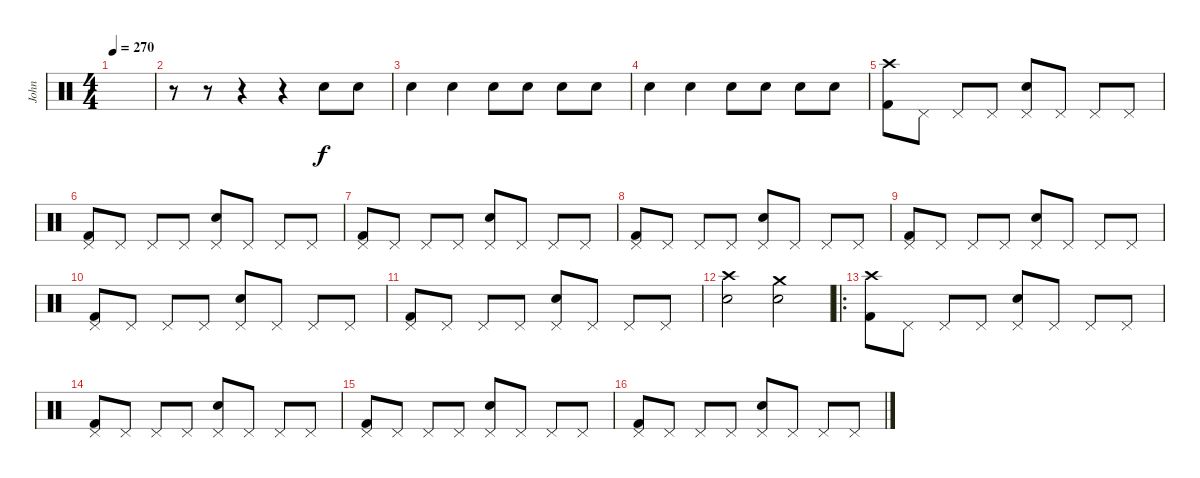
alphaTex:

\track ("John" "John") {instrument percussion}
\staff {score}
\articulation defaults
\ts (4 4)
\tempo 270
\clef neutral
\ks c
|
r.8 r.8 r.4 r.4 "Electric Snare (hit)".8 "Electric Snare (hit)".8 |
"Electric Snare (hit)".4 "Electric Snare (hit)".4 "Electric Snare (hit)".8 "Electric Snare (hit)".8 "Electric Snare (hit)".8 "Electric Snare (hit)".8 |
"Electric Snare (hit)".4 "Electric Snare (hit)".4 "Electric Snare (hit)".8 "Electric Snare (hit)".8 "Electric Snare (hit)".8 "Electric Snare (hit)".8 |
("Crash high (hit)" "Kick (hit) 2").8 "Pedal Hi-Hat (hit)".8 "Pedal Hi-Hat (hit)".8 "Pedal Hi-Hat (hit)".8 ("Pedal Hi-Hat (hit)" "Electric Snare (hit)").8 "Pedal Hi-Hat (hit)".8 "Pedal Hi-Hat (hit)".8 "Pedal Hi-Hat (hit)".8 |
("Pedal Hi-Hat (hit)" "Kick (hit) 2").8 "Pedal Hi-Hat (hit)".8 "Pedal Hi-Hat (hit)".8 "Pedal Hi-Hat (hit)".8 ("Pedal Hi-Hat (hit)" "Electric Snare (hit)").8 "Pedal Hi-Hat (hit)".8 "Pedal Hi-Hat (hit)".8 "Pedal Hi-Hat (hit)".8 |
("Pedal Hi-Hat (hit)" "Kick (hit) 2").8 "Pedal Hi-Hat (hit)".8 "Pedal Hi-Hat (hit)".8 "Pedal Hi-Hat (hit)".8 ("Pedal Hi-Hat (hit)" "Electric Snare (hit)").8 "Pedal Hi-Hat (hit)".8 "Pedal Hi-Hat (hit)".8 "Pedal Hi-Hat (hit)".8 |
("Pedal Hi-Hat (hit)" "Kick (hit) 2").8 "Pedal Hi-Hat (hit)".8 "Pedal Hi-Hat (hit)".8 "Pedal Hi-Hat (hit)".8 ("Pedal Hi-Hat (hit)" "Electric Snare (hit)").8 "Pedal Hi-Hat (hit)".8 "Pedal Hi-Hat (hit)".8 "Pedal Hi-Hat (hit)".8 |
("Pedal Hi-Hat (hit)" "Kick (hit) 2").8 "Pedal Hi-Hat (hit)".8 "Pedal Hi-Hat (hit)".8 "Pedal Hi-Hat (hit)".8 ("Pedal Hi-Hat (hit)" "Electric Snare (hit)").8 "Pedal Hi-Hat (hit)".8 "Pedal Hi-Hat (hit)".8 "Pedal Hi-Hat (hit)".8 |
("Pedal Hi-Hat (hit)" "Kick (hit) 2").8 "Pedal Hi-Hat (hit)".8 "Pedal Hi-Hat (hit)".8 "Pedal Hi-Hat (hit)".8 ("Pedal Hi-Hat (hit)" "Electric Snare (hit)").8 "Pedal Hi-Hat (hit)".8 "Pedal Hi-Hat (hit)".8 "Pedal Hi-Hat (hit)".8 |
("Pedal Hi-Hat (hit)" "Kick (hit) 2").8 "Pedal Hi-Hat (hit)".8 "Pedal Hi-Hat (hit)".8 "Pedal Hi-Hat (hit)".8 ("Pedal Hi-Hat (hit)" "Electric Snare (hit)").8 "Pedal Hi-Hat (hit)".8 "Pedal Hi-Hat (hit)".8 "Pedal Hi-Hat (hit)".8 |
("Crash high (hit)" "Electric Snare (hit)").2 ("Crash medium (hit)" "Electric Snare (hit)").2 |
\ro
("Crash high (hit)" "Kick (hit) 2").8 "Pedal Hi-Hat (hit)".8 "Pedal Hi-Hat (hit)".8 "Pedal Hi-Hat (hit)".8 ("Pedal Hi-Hat (hit)" "Electric Snare (hit)").8 "Pedal Hi-Hat (hit)".8 "Pedal Hi-Hat (hit)".8 "Pedal Hi-Hat (hit)".8 |
("Pedal Hi-Hat (hit)" "Kick (hit) 2").8 "Pedal Hi-Hat (hit)".8 "Pedal Hi-Hat (hit)".8 "Pedal Hi-Hat (hit)".8 ("Pedal Hi-Hat (hit)" "Electric Snare (hit)").8 "Pedal Hi-Hat (hit)".8 "Pedal Hi-Hat (hit)".8 "Pedal Hi-Hat (hit)".8 |
("Pedal Hi-Hat (hit)" "Kick (hit) 2").8 "Pedal Hi-Hat (hit)".8 "Pedal Hi-Hat (hit)".8 "Pedal Hi-Hat (hit)".8 ("Pedal Hi-Hat (hit)" "Electric Snare (hit)").8 "Pedal Hi-Hat (hit)".8 "Pedal Hi-Hat (hit)".8 "Pedal Hi-Hat (hit)".8 |
("Pedal Hi-Hat (hit)" "Kick (hit) 2").8 "Pedal Hi-Hat (hit)".8 "Pedal Hi-Hat (hit)".8 "Pedal Hi-Hat (hit)".8 ("Pedal Hi-Hat (hit)" "Electric Snare (hit)").8 "Pedal Hi-Hat (hit)".8 "Pedal Hi-Hat (hit)".8 "Pedal Hi-Hat (hit)".8
